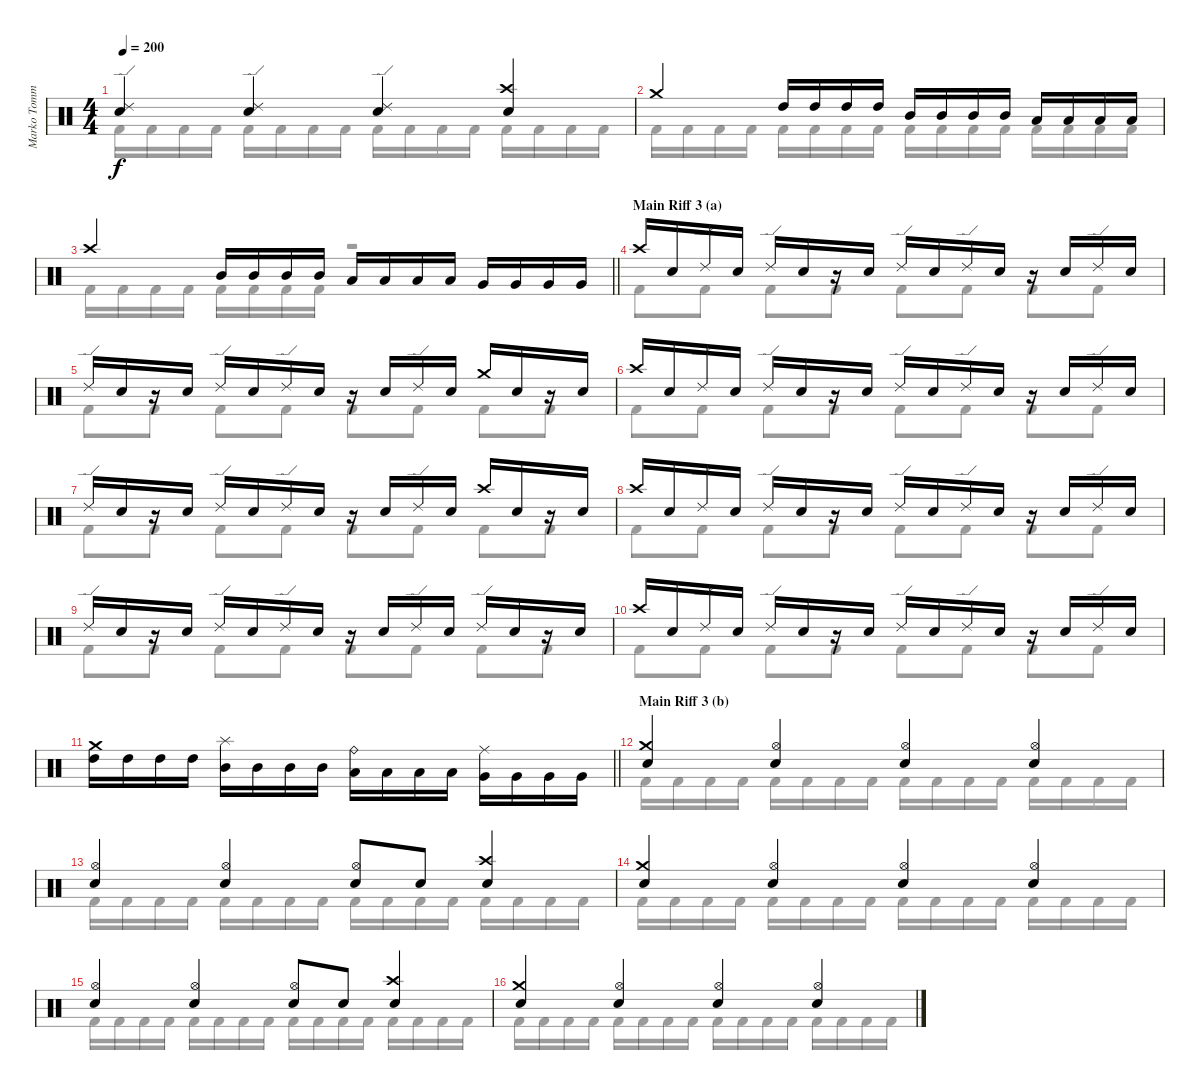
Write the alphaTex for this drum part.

\track ("Marko Tommila (drums)" "Marko Tomm") {instrument percussion}
\staff {score}
\articulation defaults
\voice
\ts (4 4)
\tempo 200
\clef neutral
\ks aminor
("Ride (edge) 2" "Electric Snare (hit)").4{dy f} ("Ride (edge) 2" "Electric Snare (hit)").4 ("Ride (edge) 2" "Electric Snare (hit)").4 ("Crash high (hit)" "Electric Snare (hit)").4 |
"Crash medium (hit)".4 "High Tom (hit)".16 "High Tom (hit)".16 "High Tom (hit)".16 "High Tom (hit)".16 "Mid Tom (hit)".16 "Mid Tom (hit)".16 "Mid Tom (hit)".16 "Mid Tom (hit)".16 "Low Tom (hit)".16 "Low Tom (hit)".16 "Low Tom (hit)".16 "Low Tom (hit)".16 |
\barLineRight lightlight "Crash high (hit)".4 "Mid Tom (hit)".16 "Mid Tom (hit)".16 "Mid Tom (hit)".16 "Mid Tom (hit)".16 "Low Tom (hit)".16 "Low Tom (hit)".16 "Low Tom (hit)".16 "Low Tom (hit)".16 "Very Low Tom (hit)".16 "Very Low Tom (hit)".16 "Very Low Tom (hit)".16 "Very Low Tom (hit)".16
|
\section ("" "Main Riff 3 (a)")
\ks c "Crash high (hit)".16 "Electric Snare (hit)".16 "Ride (edge) 2".16 "Electric Snare (hit)".16 "Ride (edge) 2".16 "Electric Snare (hit)".16
r.16 "Electric Snare (hit)".16 "Ride (edge) 2".16 "Electric Snare (hit)".16 "Ride (edge) 2".16 "Electric Snare (hit)".16 r.16 "Electric Snare (hit)".16 "Ride (edge) 2".16 "Electric Snare (hit)".16 |
"Ride (edge) 2".16 "Electric Snare (hit)".16 r.16 "Electric Snare (hit)".16 "Ride (edge) 2".16 "Electric Snare (hit)".16 "Ride (edge) 2".16 "Electric Snare (hit)".16 r.16 "Electric Snare (hit)".16 "Ride (edge) 2".16 "Electric Snare (hit)".16 "Crash medium (hit)".16 "Electric Snare (hit)".16 r.16 "Electric Snare (hit)".16 |
"Crash high (hit)".16 "Electric Snare (hit)".16 "Ride (edge) 2".16 "Electric Snare (hit)".16 "Ride (edge) 2".16 "Electric Snare (hit)".16 r.16 "Electric Snare (hit)".16 "Ride (edge) 2".16 "Electric Snare (hit)".16 "Ride (edge) 2".16 "Electric Snare (hit)".16 r.16 "Electric Snare (hit)".16 "Ride (edge) 2".16 "Electric Snare (hit)".16 |
"Ride (edge) 2".16 "Electric Snare (hit)".16 r.16 "Electric Snare (hit)".16 "Ride (edge) 2".16 "Electric Snare (hit)".16 "Ride (edge) 2".16 "Electric Snare (hit)".16 r.16 "Electric Snare (hit)".16 "Ride (edge) 2".16 "Electric Snare (hit)".16 "Crash high (hit)".16 "Electric Snare (hit)".16 r.16 "Electric Snare (hit)".16 |
"Crash high (hit)".16 "Electric Snare (hit)".16 "Ride (edge) 2".16 "Electric Snare (hit)".16 "Ride (edge) 2".16 "Electric Snare (hit)".16 r.16 "Electric Snare (hit)".16 "Ride (edge) 2".16 "Electric Snare (hit)".16 "Ride (edge) 2".16 "Electric Snare (hit)".16 r.16 "Electric Snare (hit)".16 "Ride (edge) 2".16 "Electric Snare (hit)".16 |
"Ride (edge) 2".16 "Electric Snare (hit)".16 r.16 "Electric Snare (hit)".16 "Ride (edge) 2".16 "Electric Snare (hit)".16 "Ride (edge) 2".16 "Electric Snare (hit)".16 r.16 "Electric Snare (hit)".16 "Ride (edge) 2".16 "Electric Snare (hit)".16 "Ride (edge) 2".16 "Electric Snare (hit)".16 r.16 "Electric Snare (hit)".16 |
"Crash high (hit)".16 "Electric Snare (hit)".16 "Ride (edge) 2".16 "Electric Snare (hit)".16 "Ride (edge) 2".16 "Electric Snare (hit)".16 r.16 "Electric Snare (hit)".16 "Ride (edge) 2".16 "Electric Snare (hit)".16 "Ride (edge) 2".16 "Electric Snare (hit)".16 r.16 "Electric Snare (hit)".16 "Ride (edge) 2".16 "Electric Snare (hit)".16 |
\barLineRight lightlight
("Crash medium (hit)" "High Tom (hit)").16 "High Tom (hit)".16 "High Tom (hit)".16 "High Tom (hit)".16 ("Splash (hit)" "Mid Tom (hit)").16 "Mid Tom (hit)".16 "Mid Tom (hit)".16 "Mid Tom (hit)".16 ("Ride (bell)" "Low Tom (hit)").16 "Low Tom (hit)".16 "Low Tom (hit)".16 "Low Tom (hit)".16 ("Ride (middle)" "Very Low Tom (hit)").16 "Very Low Tom (hit)".16 "Very Low Tom (hit)".16 "Very Low Tom (hit)".16 |
\section ("" "Main Riff 3 (b)")
("Crash medium (hit)" "Electric Snare (hit)").4 ("Hi-Hat (open)" "Electric Snare (hit)").4 ("Hi-Hat (open)" "Electric Snare (hit)").4 ("Hi-Hat (open)" "Electric Snare (hit)").4 |
("Hi-Hat (open)" "Electric Snare (hit)").4 ("Hi-Hat (open)" "Electric Snare (hit)").4 ("Hi-Hat (open)" "Electric Snare (hit)").8 "Electric Snare (hit)".8 ("Crash high (hit)" "Electric Snare (hit)").4 |
("Crash medium (hit)" "Electric Snare (hit)").4 ("Hi-Hat (open)" "Electric Snare (hit)").4 ("Hi-Hat (open)" "Electric Snare (hit)").4 ("Hi-Hat (open)" "Electric Snare (hit)").4 |
("Hi-Hat (open)" "Electric Snare (hit)").4 ("Hi-Hat (open)" "Electric Snare (hit)").4 ("Hi-Hat (open)" "Electric Snare (hit)").8 "Electric Snare (hit)".8 ("Crash high (hit)" "Electric Snare (hit)").4 |
("Crash medium (hit)" "Electric Snare (hit)").4 ("Hi-Hat (open)" "Electric Snare (hit)").4 ("Hi-Hat (open)" "Electric Snare (hit)").4 ("Hi-Hat (open)" "Electric Snare (hit)").4
\voice
\clef neutral
\ottava regular
\simile none
\ks aminor "Kick (hit) 2".16{dy f} "Kick (hit) 2".16 "Kick (hit) 2".16 "Kick (hit) 2".16 "Kick (hit) 2".16 "Kick (hit) 2".16 "Kick (hit) 2".16 "Kick (hit) 2".16 "Kick (hit) 2".16 "Kick (hit) 2".16 "Kick (hit) 2".16 "Kick (hit) 2".16 "Kick (hit) 2".16 "Kick (hit) 2".16 "Kick (hit) 2".16 "Kick (hit) 2".16
|
"Kick (hit) 2".16 "Kick (hit) 2".16 "Kick (hit) 2".16 "Kick (hit) 2".16 "Kick (hit) 2".16 "Kick (hit) 2".16 "Kick (hit) 2".16 "Kick (hit) 2".16 "Kick (hit) 2".16 "Kick (hit) 2".16 "Kick (hit) 2".16 "Kick (hit) 2".16 "Kick (hit) 2".16 "Kick (hit) 2".16 "Kick (hit) 2".16 "Kick (hit) 2".16 |
\barLineRight lightlight "Kick (hit) 2".16 "Kick (hit) 2".16 "Kick (hit) 2".16 "Kick (hit) 2".16 "Kick (hit) 2".16 "Kick (hit) 2".16 "Kick (hit) 2".16 "Kick (hit) 2".16
r.2 |
\ks c "Kick (hit) 2".8 "Kick (hit) 2".8 "Kick (hit) 2".8 "Kick (hit) 2".8 "Kick (hit) 2".8 "Kick (hit) 2".8 "Kick (hit) 2".8 "Kick (hit) 2".8
|
"Kick (hit) 2".8 "Kick (hit) 2".8 "Kick (hit) 2".8 "Kick (hit) 2".8 "Kick (hit) 2".8 "Kick (hit) 2".8 "Kick (hit) 2".8 "Kick (hit) 2".8 |
"Kick (hit) 2".8 "Kick (hit) 2".8 "Kick (hit) 2".8 "Kick (hit) 2".8 "Kick (hit) 2".8 "Kick (hit) 2".8 "Kick (hit) 2".8 "Kick (hit) 2".8 |
"Kick (hit) 2".8 "Kick (hit) 2".8 "Kick (hit) 2".8 "Kick (hit) 2".8 "Kick (hit) 2".8 "Kick (hit) 2".8 "Kick (hit) 2".8 "Kick (hit) 2".8 |
"Kick (hit) 2".8 "Kick (hit) 2".8 "Kick (hit) 2".8 "Kick (hit) 2".8 "Kick (hit) 2".8 "Kick (hit) 2".8 "Kick (hit) 2".8 "Kick (hit) 2".8 |
"Kick (hit) 2".8 "Kick (hit) 2".8 "Kick (hit) 2".8 "Kick (hit) 2".8 "Kick (hit) 2".8 "Kick (hit) 2".8 "Kick (hit) 2".8 "Kick (hit) 2".8 |
"Kick (hit) 2".8 "Kick (hit) 2".8 "Kick (hit) 2".8 "Kick (hit) 2".8 "Kick (hit) 2".8 "Kick (hit) 2".8 "Kick (hit) 2".8 "Kick (hit) 2".8 |
\barLineRight lightlight
|
"Kick (hit) 2".16 "Kick (hit) 2".16 "Kick (hit) 2".16 "Kick (hit) 2".16 "Kick (hit) 2".16 "Kick (hit) 2".16 "Kick (hit) 2".16 "Kick (hit) 2".16 "Kick (hit) 2".16 "Kick (hit) 2".16 "Kick (hit) 2".16 "Kick (hit) 2".16 "Kick (hit) 2".16 "Kick (hit) 2".16 "Kick (hit) 2".16 "Kick (hit) 2".16 |
"Kick (hit) 2".16 "Kick (hit) 2".16 "Kick (hit) 2".16 "Kick (hit) 2".16 "Kick (hit) 2".16 "Kick (hit) 2".16 "Kick (hit) 2".16 "Kick (hit) 2".16 "Kick (hit) 2".16 "Kick (hit) 2".16 "Kick (hit) 2".16 "Kick (hit) 2".16 "Kick (hit) 2".16 "Kick (hit) 2".16 "Kick (hit) 2".16 "Kick (hit) 2".16 |
"Kick (hit) 2".16 "Kick (hit) 2".16 "Kick (hit) 2".16 "Kick (hit) 2".16 "Kick (hit) 2".16 "Kick (hit) 2".16 "Kick (hit) 2".16 "Kick (hit) 2".16 "Kick (hit) 2".16 "Kick (hit) 2".16 "Kick (hit) 2".16 "Kick (hit) 2".16 "Kick (hit) 2".16 "Kick (hit) 2".16 "Kick (hit) 2".16 "Kick (hit) 2".16 |
"Kick (hit) 2".16 "Kick (hit) 2".16 "Kick (hit) 2".16 "Kick (hit) 2".16 "Kick (hit) 2".16 "Kick (hit) 2".16 "Kick (hit) 2".16 "Kick (hit) 2".16 "Kick (hit) 2".16 "Kick (hit) 2".16 "Kick (hit) 2".16 "Kick (hit) 2".16 "Kick (hit) 2".16 "Kick (hit) 2".16 "Kick (hit) 2".16 "Kick (hit) 2".16 |
"Kick (hit) 2".16 "Kick (hit) 2".16 "Kick (hit) 2".16 "Kick (hit) 2".16 "Kick (hit) 2".16 "Kick (hit) 2".16 "Kick (hit) 2".16 "Kick (hit) 2".16 "Kick (hit) 2".16 "Kick (hit) 2".16 "Kick (hit) 2".16 "Kick (hit) 2".16 "Kick (hit) 2".16 "Kick (hit) 2".16 "Kick (hit) 2".16 "Kick (hit) 2".16
